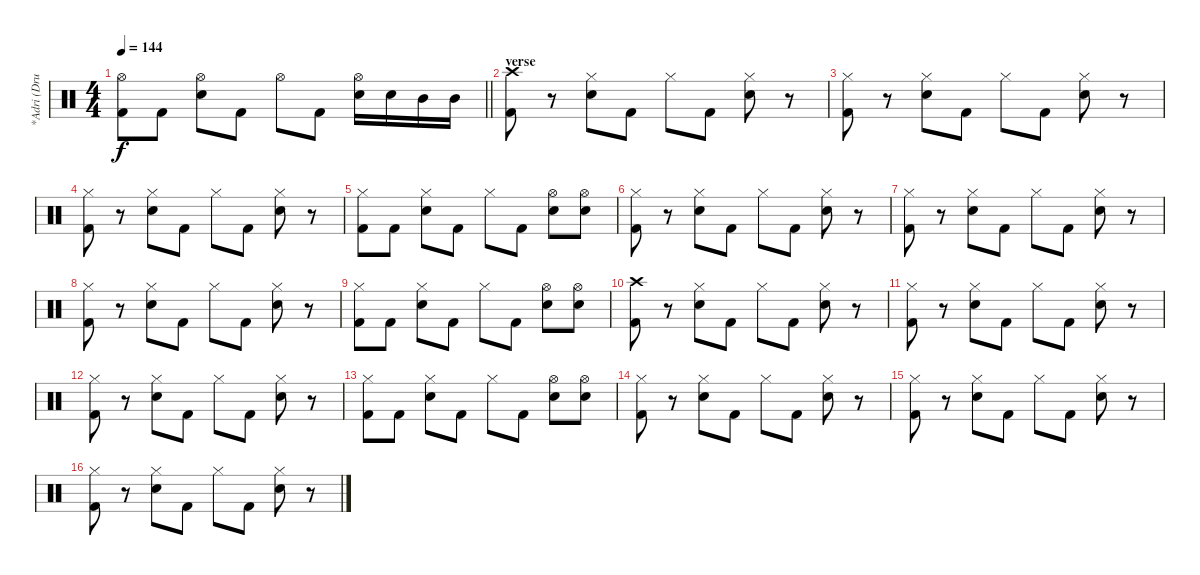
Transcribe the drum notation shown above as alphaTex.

\track ("*Adri (Drum)" "*Adri (Dru") {instrument percussion}
\staff {score}
\articulation defaults
\ts (4 4)
\tempo 144
\clef neutral
\barLineRight lightlight
\ks c
("Hi-Hat (open)" "Kick (hit) 2").8{dy f} "Kick (hit) 2".8 ("Hi-Hat (open)" "Electric Snare (hit)").8 "Kick (hit) 2".8 "Hi-Hat (open)".8 "Kick (hit) 2".8 ("Hi-Hat (open)" "Electric Snare (hit)").16 "Electric Snare (hit)".16 "Mid Tom (hit)".16 "Mid Tom (hit)".16 |
\section ("" "verse")
("Crash high (hit)" "Kick (hit) 2").8 r.8 ("Hi-Hat (closed)" "Electric Snare (hit)").8 "Kick (hit) 2".8 "Hi-Hat (closed)".8 "Kick (hit) 2".8 ("Hi-Hat (closed)" "Electric Snare (hit)").8 r.8 |
("Hi-Hat (closed)" "Kick (hit) 2").8 r.8 ("Hi-Hat (closed)" "Electric Snare (hit)").8 "Kick (hit) 2".8 "Hi-Hat (closed)".8 "Kick (hit) 2".8 ("Hi-Hat (closed)" "Electric Snare (hit)").8 r.8 |
("Hi-Hat (closed)" "Kick (hit) 2").8 r.8 ("Hi-Hat (closed)" "Electric Snare (hit)").8 "Kick (hit) 2".8 "Hi-Hat (closed)".8 "Kick (hit) 2".8 ("Hi-Hat (closed)" "Electric Snare (hit)").8 r.8 |
("Hi-Hat (closed)" "Kick (hit) 2").8 "Kick (hit) 2".8 ("Hi-Hat (closed)" "Electric Snare (hit)").8 "Kick (hit) 2".8 "Hi-Hat (closed)".8 "Kick (hit) 2".8 ("Hi-Hat (open)" "Electric Snare (hit)").8 ("Hi-Hat (open)" "Electric Snare (hit)").8 |
("Hi-Hat (closed)" "Kick (hit) 2").8 r.8 ("Hi-Hat (closed)" "Electric Snare (hit)").8 "Kick (hit) 2".8 "Hi-Hat (closed)".8 "Kick (hit) 2".8 ("Hi-Hat (closed)" "Electric Snare (hit)").8 r.8 |
("Hi-Hat (closed)" "Kick (hit) 2").8 r.8 ("Hi-Hat (closed)" "Electric Snare (hit)").8 "Kick (hit) 2".8 "Hi-Hat (closed)".8 "Kick (hit) 2".8 ("Hi-Hat (closed)" "Electric Snare (hit)").8 r.8 |
("Hi-Hat (closed)" "Kick (hit) 2").8 r.8 ("Hi-Hat (closed)" "Electric Snare (hit)").8 "Kick (hit) 2".8 "Hi-Hat (closed)".8 "Kick (hit) 2".8 ("Hi-Hat (closed)" "Electric Snare (hit)").8 r.8 |
("Hi-Hat (closed)" "Kick (hit) 2").8 "Kick (hit) 2".8 ("Hi-Hat (closed)" "Electric Snare (hit)").8 "Kick (hit) 2".8 "Hi-Hat (closed)".8 "Kick (hit) 2".8 ("Hi-Hat (open)" "Electric Snare (hit)").8 ("Hi-Hat (open)" "Electric Snare (hit)").8 |
("Crash high (hit)" "Kick (hit) 2").8 r.8 ("Hi-Hat (closed)" "Electric Snare (hit)").8 "Kick (hit) 2".8 "Hi-Hat (closed)".8 "Kick (hit) 2".8 ("Hi-Hat (closed)" "Electric Snare (hit)").8 r.8 |
("Hi-Hat (closed)" "Kick (hit) 2").8 r.8 ("Hi-Hat (closed)" "Electric Snare (hit)").8 "Kick (hit) 2".8 "Hi-Hat (closed)".8 "Kick (hit) 2".8 ("Hi-Hat (closed)" "Electric Snare (hit)").8 r.8 |
("Hi-Hat (closed)" "Kick (hit) 2").8 r.8 ("Hi-Hat (closed)" "Electric Snare (hit)").8 "Kick (hit) 2".8 "Hi-Hat (closed)".8 "Kick (hit) 2".8 ("Hi-Hat (closed)" "Electric Snare (hit)").8 r.8 |
("Hi-Hat (closed)" "Kick (hit) 2").8 "Kick (hit) 2".8 ("Hi-Hat (closed)" "Electric Snare (hit)").8 "Kick (hit) 2".8 "Hi-Hat (closed)".8 "Kick (hit) 2".8 ("Hi-Hat (open)" "Electric Snare (hit)").8 ("Hi-Hat (open)" "Electric Snare (hit)").8 |
("Hi-Hat (closed)" "Kick (hit) 2").8 r.8 ("Hi-Hat (closed)" "Electric Snare (hit)").8 "Kick (hit) 2".8 "Hi-Hat (closed)".8 "Kick (hit) 2".8 ("Hi-Hat (closed)" "Electric Snare (hit)").8 r.8 |
("Hi-Hat (closed)" "Kick (hit) 2").8 r.8 ("Hi-Hat (closed)" "Electric Snare (hit)").8 "Kick (hit) 2".8 "Hi-Hat (closed)".8 "Kick (hit) 2".8 ("Hi-Hat (closed)" "Electric Snare (hit)").8 r.8 |
("Hi-Hat (closed)" "Kick (hit) 2").8 r.8 ("Hi-Hat (closed)" "Electric Snare (hit)").8 "Kick (hit) 2".8 "Hi-Hat (closed)".8 "Kick (hit) 2".8 ("Hi-Hat (closed)" "Electric Snare (hit)").8 r.8
